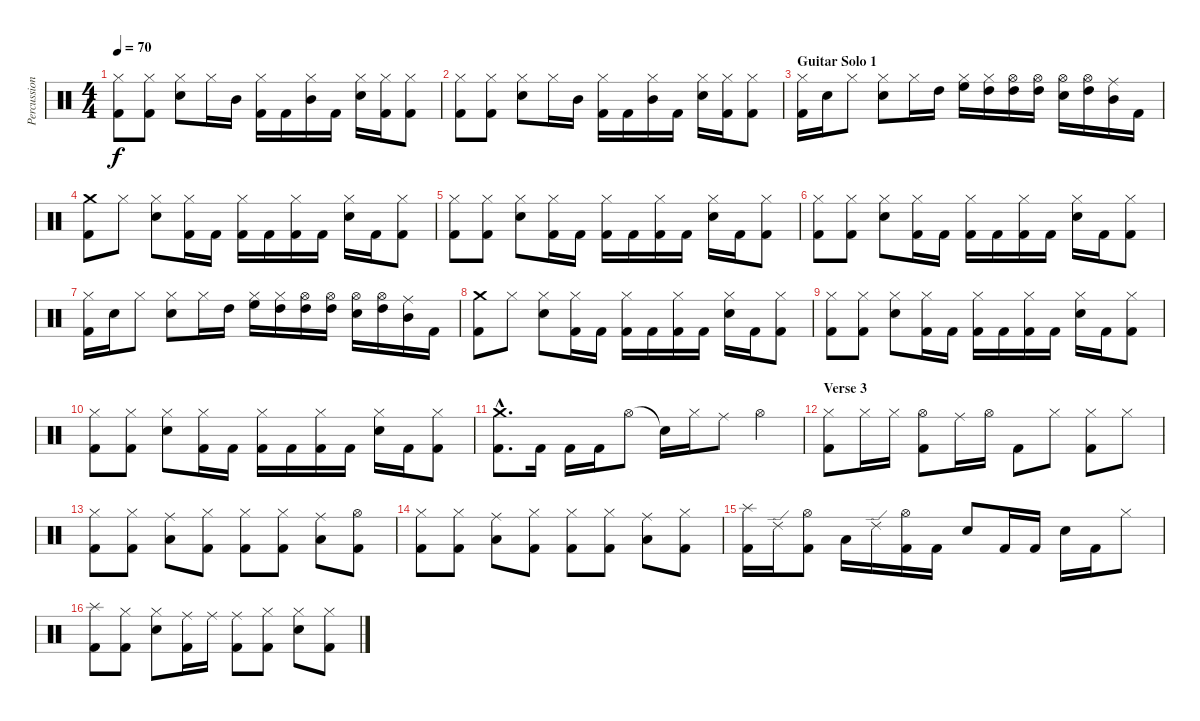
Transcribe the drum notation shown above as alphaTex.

\track ("Percussion" "Percussion") {instrument percussion}
\staff {score}
\articulation defaults
\ts (4 4)
\tempo 70
\clef neutral
\ks c
("Hi-Hat (closed)" "Kick (hit) 2").8{dy f} ("Hi-Hat (closed)" "Kick (hit) 2").8 ("Hi-Hat (closed)" "Electric Snare (hit)").8 "Hi-Hat (closed)".16 "Mid Tom (hit)".16 ("Hi-Hat (closed)" "Kick (hit) 2").16 "Kick (hit) 2".16 ("Hi-Hat (closed)" "Mid Tom (hit)").16 "Kick (hit) 2".16 ("Hi-Hat (closed)" "Electric Snare (hit)").16 ("Hi-Hat (closed)" "Kick (hit) 2").16 ("Hi-Hat (closed)" "Kick (hit) 2").8 |
("Hi-Hat (closed)" "Kick (hit) 2").8 ("Hi-Hat (closed)" "Kick (hit) 2").8 ("Hi-Hat (closed)" "Electric Snare (hit)").8 "Hi-Hat (closed)".16 "Mid Tom (hit)".16 ("Hi-Hat (closed)" "Kick (hit) 2").16 "Kick (hit) 2".16 ("Hi-Hat (closed)" "Mid Tom (hit)").16 "Kick (hit) 2".16 ("Hi-Hat (closed)" "Electric Snare (hit)").16 ("Hi-Hat (closed)" "Kick (hit) 2").16 ("Hi-Hat (closed)" "Kick (hit) 2").8 |
\section ("" "Guitar Solo 1")
("Hi-Hat (closed)" "Kick (hit) 2").16 "Electric Snare (hit)".16 "Hi-Hat (closed)".8 ("Hi-Hat (closed)" "Electric Snare (hit)").8 "Hi-Hat (closed)".16 "High Tom (hit)".16 ("Hi-Hat (closed)" "High Floor Tom (hit)").16 ("Hi-Hat (closed)" "High Tom (hit)").16 ("Hi-Hat (open)" "High Tom (hit)").16 ("Hi-Hat (open)" "High Tom (hit)").16 ("Hi-Hat (open)" "Electric Snare (hit)").16 ("Hi-Hat (open)" "High Tom (hit)").16 ("Ride (middle)" "Mid Tom (hit)").16 "Kick (hit) 2".16 |
("Crash medium (hit)" "Kick (hit) 2").8 "Hi-Hat (closed)".8 ("Hi-Hat (closed)" "Electric Snare (hit)").8 ("Hi-Hat (closed)" "Kick (hit) 2").16 "Kick (hit) 2".16 ("Hi-Hat (closed)" "Kick (hit) 2").16 "Kick (hit) 2".16 ("Hi-Hat (closed)" "Kick (hit) 2").16 "Kick (hit) 2".16 ("Hi-Hat (closed)" "Electric Snare (hit)").16 "Kick (hit) 2".16 ("Hi-Hat (closed)" "Kick (hit) 2").8 |
("Hi-Hat (closed)" "Kick (hit) 2").8 ("Hi-Hat (closed)" "Kick (hit) 2").8 ("Hi-Hat (closed)" "Electric Snare (hit)").8 ("Hi-Hat (closed)" "Kick (hit) 2").16 "Kick (hit) 2".16 ("Hi-Hat (closed)" "Kick (hit) 2").16 "Kick (hit) 2".16 ("Hi-Hat (closed)" "Kick (hit) 2").16 "Kick (hit) 2".16 ("Hi-Hat (closed)" "Electric Snare (hit)").16 "Kick (hit) 2".16 ("Hi-Hat (closed)" "Kick (hit) 2").8 |
("Hi-Hat (closed)" "Kick (hit) 2").8 ("Hi-Hat (closed)" "Kick (hit) 2").8 ("Hi-Hat (closed)" "Electric Snare (hit)").8 ("Hi-Hat (closed)" "Kick (hit) 2").16 "Kick (hit) 2".16 ("Hi-Hat (closed)" "Kick (hit) 2").16 "Kick (hit) 2".16 ("Hi-Hat (closed)" "Kick (hit) 2").16 "Kick (hit) 2".16 ("Hi-Hat (closed)" "Electric Snare (hit)").16 "Kick (hit) 2".16 ("Hi-Hat (closed)" "Kick (hit) 2").8 |
("Hi-Hat (closed)" "Kick (hit) 2").16 "Electric Snare (hit)".16 "Hi-Hat (closed)".8 ("Hi-Hat (closed)" "Electric Snare (hit)").8 "Hi-Hat (closed)".16 "High Tom (hit)".16 ("Hi-Hat (closed)" "High Floor Tom (hit)").16 ("Hi-Hat (closed)" "High Tom (hit)").16 ("Hi-Hat (open)" "High Tom (hit)").16 ("Hi-Hat (open)" "High Tom (hit)").16 ("Hi-Hat (open)" "Electric Snare (hit)").16 ("Hi-Hat (open)" "High Tom (hit)").16 ("Ride (middle)" "Mid Tom (hit)").16 "Kick (hit) 2".16 |
("Crash medium (hit)" "Kick (hit) 2").8 "Hi-Hat (closed)".8 ("Hi-Hat (closed)" "Electric Snare (hit)").8 ("Hi-Hat (closed)" "Kick (hit) 2").16 "Kick (hit) 2".16 ("Hi-Hat (closed)" "Kick (hit) 2").16 "Kick (hit) 2".16 ("Hi-Hat (closed)" "Kick (hit) 2").16 "Kick (hit) 2".16 ("Hi-Hat (closed)" "Electric Snare (hit)").16 "Kick (hit) 2".16 ("Hi-Hat (closed)" "Kick (hit) 2").8 |
("Hi-Hat (closed)" "Kick (hit) 2").8 ("Hi-Hat (closed)" "Kick (hit) 2").8 ("Hi-Hat (closed)" "Electric Snare (hit)").8 ("Hi-Hat (closed)" "Kick (hit) 2").16 "Kick (hit) 2".16 ("Hi-Hat (closed)" "Kick (hit) 2").16 "Kick (hit) 2".16 ("Hi-Hat (closed)" "Kick (hit) 2").16 "Kick (hit) 2".16 ("Hi-Hat (closed)" "Electric Snare (hit)").16 "Kick (hit) 2".16 ("Hi-Hat (closed)" "Kick (hit) 2").8 |
("Hi-Hat (closed)" "Kick (hit) 2").8 ("Hi-Hat (closed)" "Kick (hit) 2").8 ("Hi-Hat (closed)" "Electric Snare (hit)").8 ("Hi-Hat (closed)" "Kick (hit) 2").16 "Kick (hit) 2".16 ("Hi-Hat (closed)" "Kick (hit) 2").16 "Kick (hit) 2".16 ("Hi-Hat (closed)" "Kick (hit) 2").16 "Kick (hit) 2".16 ("Hi-Hat (closed)" "Electric Snare (hit)").16 "Kick (hit) 2".16 ("Hi-Hat (closed)" "Kick (hit) 2").8 |
("Crash medium (hit)"{hac} "Kick (hit) 2"{hac}).8{d} "Kick (hit) 2".16 "Kick (hit) 2".16 "Kick (hit) 2".16 "Hi-Hat (open)".8 "Snare (hit)"{t}.16 "Hi-Hat (closed)".16 "Ride (middle)".8 "Hi-Hat (open)".4 |
\section ("" "Verse 3")
("Hi-Hat (closed)" "Kick (hit) 2").8 "Hi-Hat (closed)".16 "Hi-Hat (closed)".16 ("Hi-Hat (open)" "Kick (hit) 2").8 "Ride (middle)".16 "Hi-Hat (open)".16 "Kick (hit) 2".8 "Hi-Hat (closed)".8 ("Hi-Hat (closed)" "Kick (hit) 2").8 "Hi-Hat (closed)".8 |
("Hi-Hat (closed)" "Kick (hit) 2").8 ("Hi-Hat (closed)" "Kick (hit) 2").8 ("Ride (middle)" "Low Tom (hit)").8 ("Hi-Hat (closed)" "Kick (hit) 2").8 ("Hi-Hat (closed)" "Kick (hit) 2").8 ("Hi-Hat (closed)" "Kick (hit) 2").8 ("Ride (middle)" "Low Tom (hit)").8 ("Hi-Hat (open)" "Kick (hit) 2").8 |
("Hi-Hat (closed)" "Kick (hit) 2").8 ("Hi-Hat (closed)" "Kick (hit) 2").8 ("Ride (middle)" "Low Tom (hit)").8 ("Hi-Hat (closed)" "Kick (hit) 2").8 ("Hi-Hat (closed)" "Kick (hit) 2").8 ("Hi-Hat (closed)" "Kick (hit) 2").8 ("Ride (middle)" "Low Tom (hit)").8 ("Hi-Hat (closed)" "Kick (hit) 2").8 |
("Splash (hit)" "Kick (hit) 2").16 "Ride (edge) 2".16 ("Hi-Hat (open)" "Kick (hit) 2").8 "Low Tom (hit)".16 "Ride (edge) 2".16 ("Hi-Hat (open)" "Kick (hit) 2").16 "Kick (hit) 2".16 "Electric Snare (hit)".8 "Kick (hit) 2".16 "Kick (hit) 2".16 "Electric Snare (hit)".16 "Kick (hit) 2".16 "Hi-Hat (closed)".8 |
("Splash (hit)" "Kick (hit) 2").8 ("Hi-Hat (closed)" "Kick (hit) 2").8 ("Hi-Hat (closed)" "Electric Snare (hit)").8 ("Ride (middle)" "Kick (hit) 2").16 "Ride (middle)".16 ("Ride (middle)" "Kick (hit) 2").8 ("Hi-Hat (closed)" "Kick (hit) 2").8 ("Hi-Hat (closed)" "Electric Snare (hit)").8 ("Hi-Hat (closed)" "Kick (hit) 2").8
